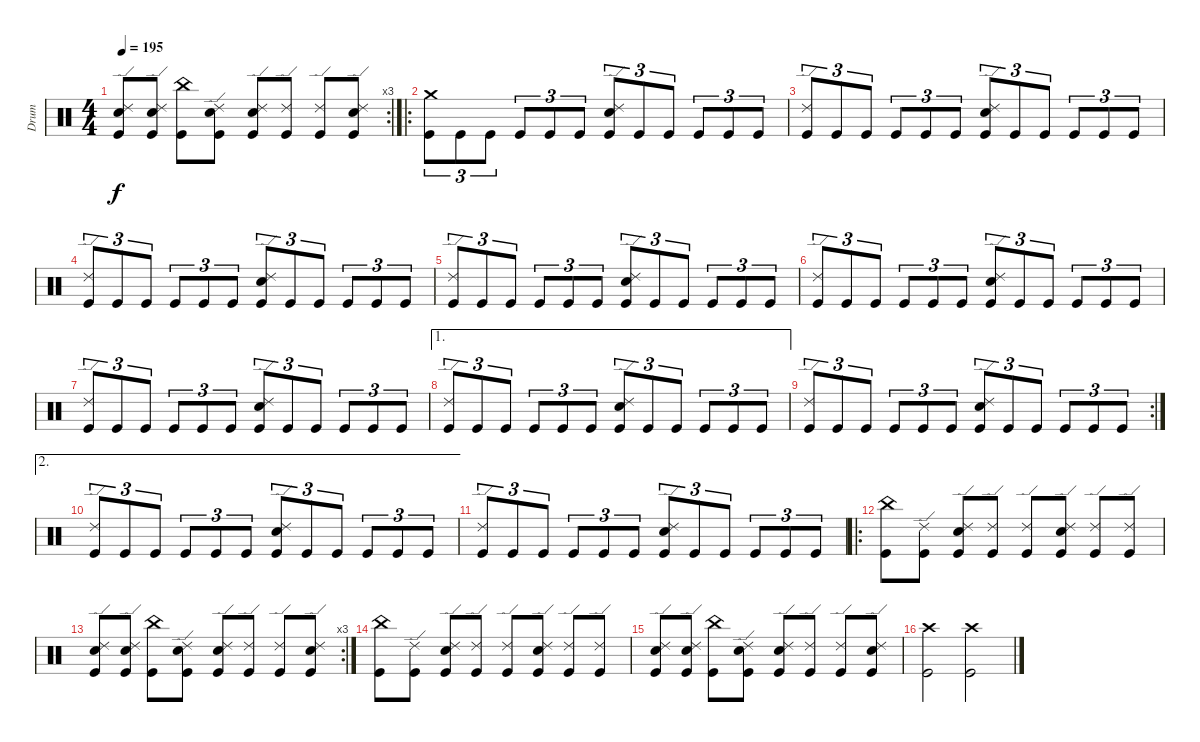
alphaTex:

\track ("Drum" "Drum") {instrument percussion}
\staff {score}
\articulation defaults
\rc 3
\ts (4 4)
\tempo 195
\clef neutral
\ks c
("Ride (edge) 2" "Snare (hit) 2" "Kick (hit)").8{dy f} ("Ride (edge) 2" "Snare (hit) 2" "Kick (hit)").8 ("China (hit)" "Kick (hit)").8 ("Ride (edge) 2" "Snare (hit) 2" "Kick (hit)").8 ("Ride (edge) 2" "Snare (hit) 2" "Kick (hit)").8 ("Ride (edge) 2" "Kick (hit)").8 ("Ride (edge) 2" "Kick (hit)").8 ("Ride (edge) 2" "Snare (hit) 2" "Kick (hit)").8 |
\ro
("Crash medium (hit)" "Kick (hit)").8{tu (3 2)} "Kick (hit)".8{tu (3 2)} "Kick (hit)".8{tu (3 2)} "Kick (hit)".8{tu (3 2)} "Kick (hit)".8{tu (3 2)} "Kick (hit)".8{tu (3 2)} ("Ride (edge) 2" "Snare (hit) 2" "Kick (hit)").8{tu (3 2)} "Kick (hit)".8{tu (3 2)} "Kick (hit)".8{tu (3 2)} "Kick (hit)".8{tu (3 2)} "Kick (hit)".8{tu (3 2)} "Kick (hit)".8{tu (3 2)} |
("Ride (edge) 2" "Kick (hit)").8{tu (3 2)} "Kick (hit)".8{tu (3 2)} "Kick (hit)".8{tu (3 2)} "Kick (hit)".8{tu (3 2)} "Kick (hit)".8{tu (3 2)} "Kick (hit)".8{tu (3 2)} ("Ride (edge) 2" "Snare (hit) 2" "Kick (hit)").8{tu (3 2)} "Kick (hit)".8{tu (3 2)} "Kick (hit)".8{tu (3 2)} "Kick (hit)".8{tu (3 2)} "Kick (hit)".8{tu (3 2)} "Kick (hit)".8{tu (3 2)} |
("Ride (edge) 2" "Kick (hit)").8{tu (3 2)} "Kick (hit)".8{tu (3 2)} "Kick (hit)".8{tu (3 2)} "Kick (hit)".8{tu (3 2)} "Kick (hit)".8{tu (3 2)} "Kick (hit)".8{tu (3 2)} ("Ride (edge) 2" "Snare (hit) 2" "Kick (hit)").8{tu (3 2)} "Kick (hit)".8{tu (3 2)} "Kick (hit)".8{tu (3 2)} "Kick (hit)".8{tu (3 2)} "Kick (hit)".8{tu (3 2)} "Kick (hit)".8{tu (3 2)} |
("Ride (edge) 2" "Kick (hit)").8{tu (3 2)} "Kick (hit)".8{tu (3 2)} "Kick (hit)".8{tu (3 2)} "Kick (hit)".8{tu (3 2)} "Kick (hit)".8{tu (3 2)} "Kick (hit)".8{tu (3 2)} ("Ride (edge) 2" "Snare (hit) 2" "Kick (hit)").8{tu (3 2)} "Kick (hit)".8{tu (3 2)} "Kick (hit)".8{tu (3 2)} "Kick (hit)".8{tu (3 2)} "Kick (hit)".8{tu (3 2)} "Kick (hit)".8{tu (3 2)} |
("Ride (edge) 2" "Kick (hit)").8{tu (3 2)} "Kick (hit)".8{tu (3 2)} "Kick (hit)".8{tu (3 2)} "Kick (hit)".8{tu (3 2)} "Kick (hit)".8{tu (3 2)} "Kick (hit)".8{tu (3 2)} ("Ride (edge) 2" "Snare (hit) 2" "Kick (hit)").8{tu (3 2)} "Kick (hit)".8{tu (3 2)} "Kick (hit)".8{tu (3 2)} "Kick (hit)".8{tu (3 2)} "Kick (hit)".8{tu (3 2)} "Kick (hit)".8{tu (3 2)} |
("Ride (edge) 2" "Kick (hit)").8{tu (3 2)} "Kick (hit)".8{tu (3 2)} "Kick (hit)".8{tu (3 2)} "Kick (hit)".8{tu (3 2)} "Kick (hit)".8{tu (3 2)} "Kick (hit)".8{tu (3 2)} ("Ride (edge) 2" "Snare (hit) 2" "Kick (hit)").8{tu (3 2)} "Kick (hit)".8{tu (3 2)} "Kick (hit)".8{tu (3 2)} "Kick (hit)".8{tu (3 2)} "Kick (hit)".8{tu (3 2)} "Kick (hit)".8{tu (3 2)} |
\ae 1
("Ride (edge) 2" "Kick (hit)").8{tu (3 2)} "Kick (hit)".8{tu (3 2)} "Kick (hit)".8{tu (3 2)} "Kick (hit)".8{tu (3 2)} "Kick (hit)".8{tu (3 2)} "Kick (hit)".8{tu (3 2)} ("Ride (edge) 2" "Snare (hit) 2" "Kick (hit)").8{tu (3 2)} "Kick (hit)".8{tu (3 2)} "Kick (hit)".8{tu (3 2)} "Kick (hit)".8{tu (3 2)} "Kick (hit)".8{tu (3 2)} "Kick (hit)".8{tu (3 2)} |
\rc 2
("Ride (edge) 2" "Kick (hit)").8{tu (3 2)} "Kick (hit)".8{tu (3 2)} "Kick (hit)".8{tu (3 2)} "Kick (hit)".8{tu (3 2)} "Kick (hit)".8{tu (3 2)} "Kick (hit)".8{tu (3 2)} ("Ride (edge) 2" "Snare (hit) 2" "Kick (hit)").8{tu (3 2)} "Kick (hit)".8{tu (3 2)} "Kick (hit)".8{tu (3 2)} "Kick (hit)".8{tu (3 2)} "Kick (hit)".8{tu (3 2)} "Kick (hit)".8{tu (3 2)} |
\ae 2
("Ride (edge) 2" "Kick (hit)").8{tu (3 2)} "Kick (hit)".8{tu (3 2)} "Kick (hit)".8{tu (3 2)} "Kick (hit)".8{tu (3 2)} "Kick (hit)".8{tu (3 2)} "Kick (hit)".8{tu (3 2)} ("Ride (edge) 2" "Snare (hit) 2" "Kick (hit)").8{tu (3 2)} "Kick (hit)".8{tu (3 2)} "Kick (hit)".8{tu (3 2)} "Kick (hit)".8{tu (3 2)} "Kick (hit)".8{tu (3 2)} "Kick (hit)".8{tu (3 2)} |
("Ride (edge) 2" "Kick (hit)").8{tu (3 2)} "Kick (hit)".8{tu (3 2)} "Kick (hit)".8{tu (3 2)} "Kick (hit)".8{tu (3 2)} "Kick (hit)".8{tu (3 2)} "Kick (hit)".8{tu (3 2)} ("Ride (edge) 2" "Snare (hit) 2" "Kick (hit)").8{tu (3 2)} "Kick (hit)".8{tu (3 2)} "Kick (hit)".8{tu (3 2)} "Kick (hit)".8{tu (3 2)} "Kick (hit)".8{tu (3 2)} "Kick (hit)".8{tu (3 2)} |
\ro
("China (hit)" "Kick (hit)").8 ("Ride (edge) 2" "Kick (hit)").8 ("Ride (edge) 2" "Snare (hit) 2" "Kick (hit)").8 ("Ride (edge) 2" "Kick (hit)").8 ("Ride (edge) 2" "Kick (hit)").8 ("Ride (edge) 2" "Snare (hit) 2" "Kick (hit)").8 ("Ride (edge) 2" "Kick (hit)").8 ("Ride (edge) 2" "Kick (hit)").8 |
\rc 3
("Ride (edge) 2" "Snare (hit) 2" "Kick (hit)").8 ("Ride (edge) 2" "Snare (hit) 2" "Kick (hit)").8 ("China (hit)" "Kick (hit)").8 ("Ride (edge) 2" "Snare (hit) 2" "Kick (hit)").8 ("Ride (edge) 2" "Snare (hit) 2" "Kick (hit)").8 ("Ride (edge) 2" "Kick (hit)").8 ("Ride (edge) 2" "Kick (hit)").8 ("Ride (edge) 2" "Snare (hit) 2" "Kick (hit)").8 |
("China (hit)" "Kick (hit)").8 ("Ride (edge) 2" "Kick (hit)").8 ("Ride (edge) 2" "Snare (hit) 2" "Kick (hit)").8 ("Ride (edge) 2" "Kick (hit)").8 ("Ride (edge) 2" "Kick (hit)").8 ("Ride (edge) 2" "Snare (hit) 2" "Kick (hit)").8 ("Ride (edge) 2" "Kick (hit)").8 ("Ride (edge) 2" "Kick (hit)").8 |
("Ride (edge) 2" "Snare (hit) 2" "Kick (hit)").8 ("Ride (edge) 2" "Snare (hit) 2" "Kick (hit)").8 ("China (hit)" "Kick (hit)").8 ("Ride (edge) 2" "Snare (hit) 2" "Kick (hit)").8 ("Ride (edge) 2" "Snare (hit) 2" "Kick (hit)").8 ("Ride (edge) 2" "Kick (hit)").8 ("Ride (edge) 2" "Kick (hit)").8 ("Ride (edge) 2" "Snare (hit) 2" "Kick (hit)").8 |
("Crash high (hit)" "Kick (hit)").2 ("Crash high (hit)" "Kick (hit)").2
